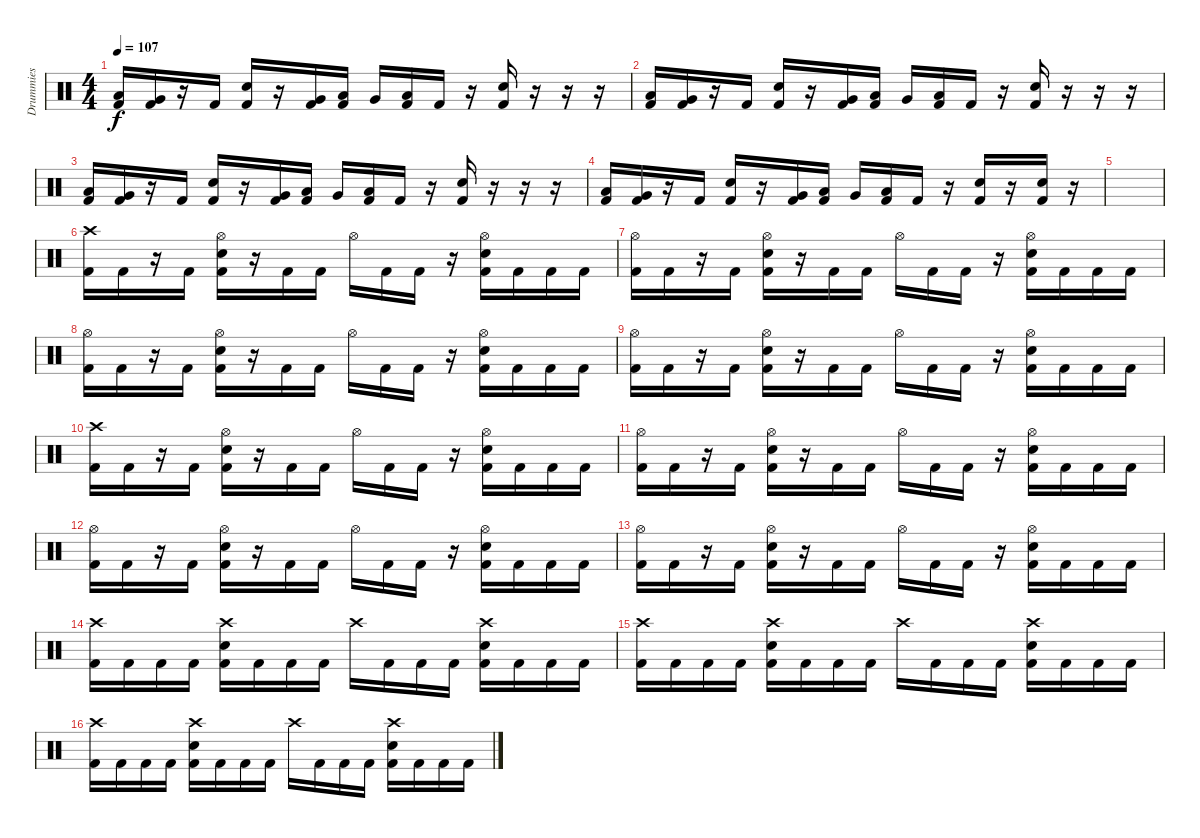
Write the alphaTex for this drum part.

\track ("Drummies" "Drummies") {instrument percussion}
\staff {score}
\articulation defaults
\ts (4 4)
\tempo 107
\clef neutral
\ks c
("Low Tom (hit)" "Kick (hit) 2").16{dy f} ("Very Low Tom (hit)" "Kick (hit) 2").16 r.16 "Kick (hit) 2".16 ("Electric Snare (hit)" "Kick (hit) 2").16 r.16 ("Very Low Tom (hit)" "Kick (hit) 2").16 ("Low Tom (hit)" "Kick (hit) 2").16 "Very Low Tom (hit)".16 ("Low Floor Tom (hit)" "Kick (hit) 2").16 "Kick (hit) 2".16 r.16 ("Electric Snare (hit)" "Kick (hit) 2").16 r.16 r.16 r.16 |
("Low Tom (hit)" "Kick (hit) 2").16 ("Very Low Tom (hit)" "Kick (hit) 2").16 r.16 "Kick (hit) 2".16 ("Electric Snare (hit)" "Kick (hit) 2").16 r.16 ("Very Low Tom (hit)" "Kick (hit) 2").16 ("Low Tom (hit)" "Kick (hit) 2").16 "Very Low Tom (hit)".16 ("Low Floor Tom (hit)" "Kick (hit) 2").16 "Kick (hit) 2".16 r.16 ("Electric Snare (hit)" "Kick (hit) 2").16 r.16 r.16 r.16 |
("Low Tom (hit)" "Kick (hit) 2").16 ("Very Low Tom (hit)" "Kick (hit) 2").16 r.16 "Kick (hit) 2".16 ("Electric Snare (hit)" "Kick (hit) 2").16 r.16 ("Very Low Tom (hit)" "Kick (hit) 2").16 ("Low Tom (hit)" "Kick (hit) 2").16 "Very Low Tom (hit)".16 ("Low Floor Tom (hit)" "Kick (hit) 2").16 "Kick (hit) 2".16 r.16 ("Electric Snare (hit)" "Kick (hit) 2").16 r.16 r.16 r.16 |
("Low Tom (hit)" "Kick (hit) 2").16 ("Very Low Tom (hit)" "Kick (hit) 2").16 r.16 "Kick (hit) 2".16 ("Electric Snare (hit)" "Kick (hit) 2").16 r.16 ("Very Low Tom (hit)" "Kick (hit) 2").16 ("Low Tom (hit)" "Kick (hit) 2").16 "Very Low Tom (hit)".16 ("Low Floor Tom (hit)" "Kick (hit) 2").16 "Kick (hit) 2".16 r.16 ("Electric Snare (hit)" "Kick (hit) 2").16 r.16 ("Electric Snare (hit)" "Kick (hit) 2").16 r.16 |
|
("Crash high (hit)" "Kick (hit) 2").16 "Kick (hit) 2".16 r.16 "Kick (hit) 2".16 ("Hi-Hat (open)" "Electric Snare (hit)" "Kick (hit) 2").16 r.16 "Kick (hit) 2".16 "Kick (hit) 2".16 "Hi-Hat (open)".16 "Kick (hit) 2".16 "Kick (hit) 2".16 r.16 ("Hi-Hat (open)" "Electric Snare (hit)" "Kick (hit) 2").16 "Kick (hit) 2".16 "Kick (hit) 2".16 "Kick (hit) 2".16 |
("Hi-Hat (open)" "Kick (hit) 2").16 "Kick (hit) 2".16 r.16 "Kick (hit) 2".16 ("Hi-Hat (open)" "Electric Snare (hit)" "Kick (hit) 2").16 r.16 "Kick (hit) 2".16 "Kick (hit) 2".16 "Hi-Hat (open)".16 "Kick (hit) 2".16 "Kick (hit) 2".16 r.16 ("Hi-Hat (open)" "Electric Snare (hit)" "Kick (hit) 2").16 "Kick (hit) 2".16 "Kick (hit) 2".16 "Kick (hit) 2".16 |
("Hi-Hat (open)" "Kick (hit) 2").16 "Kick (hit) 2".16 r.16 "Kick (hit) 2".16 ("Hi-Hat (open)" "Electric Snare (hit)" "Kick (hit) 2").16 r.16 "Kick (hit) 2".16 "Kick (hit) 2".16 "Hi-Hat (open)".16 "Kick (hit) 2".16 "Kick (hit) 2".16 r.16 ("Hi-Hat (open)" "Electric Snare (hit)" "Kick (hit) 2").16 "Kick (hit) 2".16 "Kick (hit) 2".16 "Kick (hit) 2".16 |
("Hi-Hat (open)" "Kick (hit) 2").16 "Kick (hit) 2".16 r.16 "Kick (hit) 2".16 ("Hi-Hat (open)" "Electric Snare (hit)" "Kick (hit) 2").16 r.16 "Kick (hit) 2".16 "Kick (hit) 2".16 "Hi-Hat (open)".16 "Kick (hit) 2".16 "Kick (hit) 2".16 r.16 ("Hi-Hat (open)" "Electric Snare (hit)" "Kick (hit) 2").16 "Kick (hit) 2".16 "Kick (hit) 2".16 "Kick (hit) 2".16 |
("Crash high (hit)" "Kick (hit) 2").16 "Kick (hit) 2".16 r.16 "Kick (hit) 2".16 ("Hi-Hat (open)" "Electric Snare (hit)" "Kick (hit) 2").16 r.16 "Kick (hit) 2".16 "Kick (hit) 2".16 "Hi-Hat (open)".16 "Kick (hit) 2".16 "Kick (hit) 2".16 r.16 ("Hi-Hat (open)" "Electric Snare (hit)" "Kick (hit) 2").16 "Kick (hit) 2".16 "Kick (hit) 2".16 "Kick (hit) 2".16 |
("Hi-Hat (open)" "Kick (hit) 2").16 "Kick (hit) 2".16 r.16 "Kick (hit) 2".16 ("Hi-Hat (open)" "Electric Snare (hit)" "Kick (hit) 2").16 r.16 "Kick (hit) 2".16 "Kick (hit) 2".16 "Hi-Hat (open)".16 "Kick (hit) 2".16 "Kick (hit) 2".16 r.16 ("Hi-Hat (open)" "Electric Snare (hit)" "Kick (hit) 2").16 "Kick (hit) 2".16 "Kick (hit) 2".16 "Kick (hit) 2".16 |
("Hi-Hat (open)" "Kick (hit) 2").16 "Kick (hit) 2".16 r.16 "Kick (hit) 2".16 ("Hi-Hat (open)" "Electric Snare (hit)" "Kick (hit) 2").16 r.16 "Kick (hit) 2".16 "Kick (hit) 2".16 "Hi-Hat (open)".16 "Kick (hit) 2".16 "Kick (hit) 2".16 r.16 ("Hi-Hat (open)" "Electric Snare (hit)" "Kick (hit) 2").16 "Kick (hit) 2".16 "Kick (hit) 2".16 "Kick (hit) 2".16 |
("Hi-Hat (open)" "Kick (hit) 2").16 "Kick (hit) 2".16 r.16 "Kick (hit) 2".16 ("Hi-Hat (open)" "Electric Snare (hit)" "Kick (hit) 2").16 r.16 "Kick (hit) 2".16 "Kick (hit) 2".16 "Hi-Hat (open)".16 "Kick (hit) 2".16 "Kick (hit) 2".16 r.16 ("Hi-Hat (open)" "Electric Snare (hit)" "Kick (hit) 2").16 "Kick (hit) 2".16 "Kick (hit) 2".16 "Kick (hit) 2".16 |
("Crash high (hit)" "Kick (hit) 2").16 "Kick (hit) 2".16 "Kick (hit) 2".16 "Kick (hit) 2".16 ("Electric Snare (hit)" "Crash high (hit)" "Kick (hit) 2").16 "Kick (hit) 2".16 "Kick (hit) 2".16 "Kick (hit) 2".16 "Crash high (hit)".16 "Kick (hit) 2".16 "Kick (hit) 2".16 "Kick (hit) 2".16 ("Electric Snare (hit)" "Crash high (hit)" "Kick (hit) 2").16 "Kick (hit) 2".16 "Kick (hit) 2".16 "Kick (hit) 2".16 |
("Crash high (hit)" "Kick (hit) 2").16 "Kick (hit) 2".16 "Kick (hit) 2".16 "Kick (hit) 2".16 ("Electric Snare (hit)" "Crash high (hit)" "Kick (hit) 2").16 "Kick (hit) 2".16 "Kick (hit) 2".16 "Kick (hit) 2".16 "Crash high (hit)".16 "Kick (hit) 2".16 "Kick (hit) 2".16 "Kick (hit) 2".16 ("Electric Snare (hit)" "Crash high (hit)" "Kick (hit) 2").16 "Kick (hit) 2".16 "Kick (hit) 2".16 "Kick (hit) 2".16 |
("Crash high (hit)" "Kick (hit) 2").16 "Kick (hit) 2".16 "Kick (hit) 2".16 "Kick (hit) 2".16 ("Electric Snare (hit)" "Crash high (hit)" "Kick (hit) 2").16 "Kick (hit) 2".16 "Kick (hit) 2".16 "Kick (hit) 2".16 "Crash high (hit)".16 "Kick (hit) 2".16 "Kick (hit) 2".16 "Kick (hit) 2".16 ("Electric Snare (hit)" "Crash high (hit)" "Kick (hit) 2").16 "Kick (hit) 2".16 "Kick (hit) 2".16 "Kick (hit) 2".16
